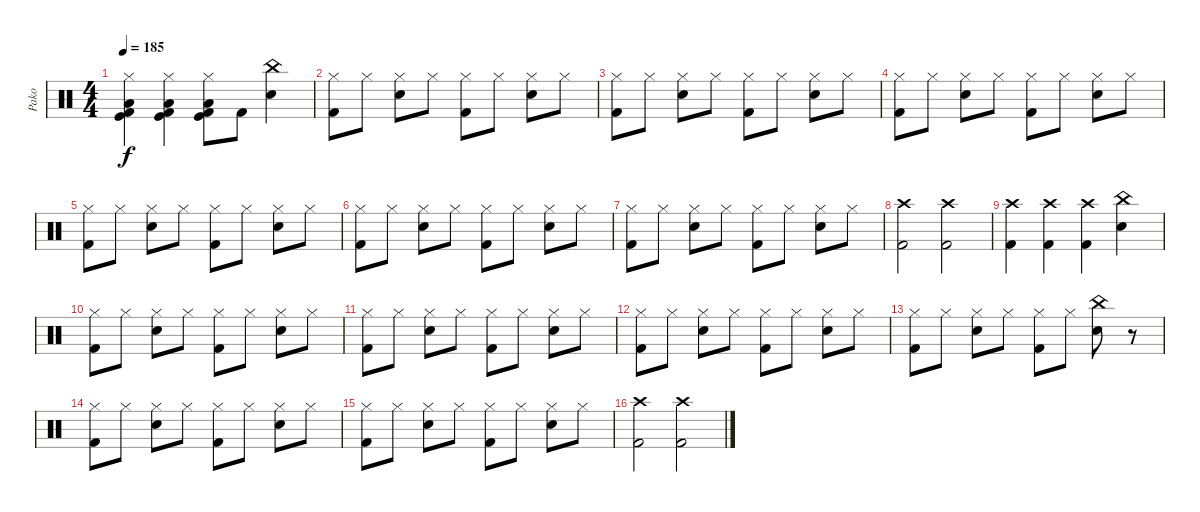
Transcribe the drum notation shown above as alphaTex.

\track ("Pako" "Pako") {instrument percussion}
\staff {score}
\articulation defaults
\ts (4 4)
\tempo 185
\clef neutral
\ks c
("Hi-Hat (closed)" "Low Tom (hit)" "Kick (hit)" "Kick (hit) 2").4{dy f} ("Hi-Hat (closed)" "Low Tom (hit)" "Kick (hit)" "Kick (hit) 2").4 ("Hi-Hat (closed)" "Low Tom (hit)" "Kick (hit)" "Kick (hit) 2").8 "Kick (hit) 2".8 ("China (hit)" "Snare (hit) 2").4 |
("Hi-Hat (closed)" "Kick (hit) 2").8 "Hi-Hat (closed)".8 ("Hi-Hat (closed)" "Snare (hit) 2").8 "Hi-Hat (closed)".8 ("Hi-Hat (closed)" "Kick (hit) 2").8 "Hi-Hat (closed)".8 ("Hi-Hat (closed)" "Snare (hit) 2").8 "Hi-Hat (closed)".8 |
("Hi-Hat (closed)" "Kick (hit) 2").8 "Hi-Hat (closed)".8 ("Hi-Hat (closed)" "Snare (hit) 2").8 "Hi-Hat (closed)".8 ("Hi-Hat (closed)" "Kick (hit) 2").8 "Hi-Hat (closed)".8 ("Hi-Hat (closed)" "Snare (hit) 2").8 "Hi-Hat (closed)".8 |
("Hi-Hat (closed)" "Kick (hit) 2").8 "Hi-Hat (closed)".8 ("Hi-Hat (closed)" "Snare (hit) 2").8 "Hi-Hat (closed)".8 ("Hi-Hat (closed)" "Kick (hit) 2").8 "Hi-Hat (closed)".8 ("Hi-Hat (closed)" "Snare (hit) 2").8 "Hi-Hat (closed)".8 |
("Hi-Hat (closed)" "Kick (hit) 2").8 "Hi-Hat (closed)".8 ("Hi-Hat (closed)" "Snare (hit) 2").8 "Hi-Hat (closed)".8 ("Hi-Hat (closed)" "Kick (hit) 2").8 "Hi-Hat (closed)".8 ("Hi-Hat (closed)" "Snare (hit) 2").8 "Hi-Hat (closed)".8 |
("Hi-Hat (closed)" "Kick (hit) 2").8 "Hi-Hat (closed)".8 ("Hi-Hat (closed)" "Snare (hit) 2").8 "Hi-Hat (closed)".8 ("Hi-Hat (closed)" "Kick (hit) 2").8 "Hi-Hat (closed)".8 ("Hi-Hat (closed)" "Snare (hit) 2").8 "Hi-Hat (closed)".8 |
("Hi-Hat (closed)" "Kick (hit) 2").8 "Hi-Hat (closed)".8 ("Hi-Hat (closed)" "Snare (hit) 2").8 "Hi-Hat (closed)".8 ("Hi-Hat (closed)" "Kick (hit) 2").8 "Hi-Hat (closed)".8 ("Hi-Hat (closed)" "Snare (hit) 2").8 "Hi-Hat (closed)".8 |
("Crash high (hit)" "Kick (hit) 2").2 ("Crash high (hit)" "Kick (hit) 2").2 |
("Crash high (hit)" "Kick (hit) 2").4 ("Crash high (hit)" "Kick (hit) 2").4 ("Crash high (hit)" "Kick (hit) 2").4 ("China (hit)" "Snare (hit) 2").4 |
("Hi-Hat (closed)" "Kick (hit) 2").8 "Hi-Hat (closed)".8 ("Hi-Hat (closed)" "Snare (hit) 2").8 "Hi-Hat (closed)".8 ("Hi-Hat (closed)" "Kick (hit) 2").8 "Hi-Hat (closed)".8 ("Hi-Hat (closed)" "Snare (hit) 2").8 "Hi-Hat (closed)".8 |
("Hi-Hat (closed)" "Kick (hit) 2").8 "Hi-Hat (closed)".8 ("Hi-Hat (closed)" "Snare (hit) 2").8 "Hi-Hat (closed)".8 ("Hi-Hat (closed)" "Kick (hit) 2").8 "Hi-Hat (closed)".8 ("Hi-Hat (closed)" "Snare (hit) 2").8 "Hi-Hat (closed)".8 |
("Hi-Hat (closed)" "Kick (hit) 2").8 "Hi-Hat (closed)".8 ("Hi-Hat (closed)" "Snare (hit) 2").8 "Hi-Hat (closed)".8 ("Hi-Hat (closed)" "Kick (hit) 2").8 "Hi-Hat (closed)".8 ("Hi-Hat (closed)" "Snare (hit) 2").8 "Hi-Hat (closed)".8 |
("Hi-Hat (closed)" "Kick (hit) 2").8 "Hi-Hat (closed)".8 ("Hi-Hat (closed)" "Snare (hit) 2").8 "Hi-Hat (closed)".8 ("Hi-Hat (closed)" "Kick (hit) 2").8 "Hi-Hat (closed)".8 ("China (hit)" "Snare (hit) 2").8 r.8 |
("Hi-Hat (closed)" "Kick (hit) 2").8 "Hi-Hat (closed)".8 ("Hi-Hat (closed)" "Snare (hit) 2").8 "Hi-Hat (closed)".8 ("Hi-Hat (closed)" "Kick (hit) 2").8 "Hi-Hat (closed)".8 ("Hi-Hat (closed)" "Snare (hit) 2").8 "Hi-Hat (closed)".8 |
("Hi-Hat (closed)" "Kick (hit) 2").8 "Hi-Hat (closed)".8 ("Hi-Hat (closed)" "Snare (hit) 2").8 "Hi-Hat (closed)".8 ("Hi-Hat (closed)" "Kick (hit) 2").8 "Hi-Hat (closed)".8 ("Hi-Hat (closed)" "Snare (hit) 2").8 "Hi-Hat (closed)".8 |
("Crash high (hit)" "Kick (hit) 2").2 ("Crash high (hit)" "Kick (hit) 2").2
